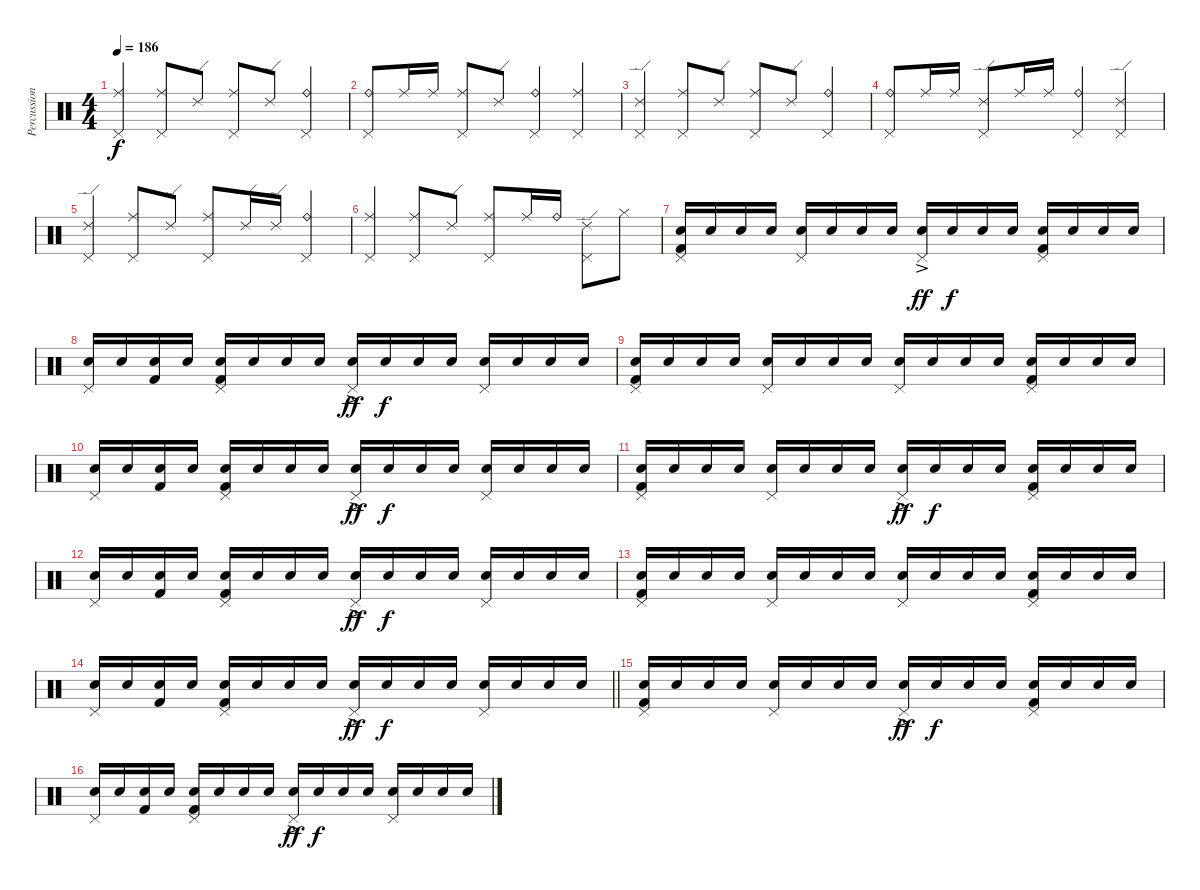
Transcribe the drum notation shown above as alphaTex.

\track ("Percussion" "Percussion") {instrument percussion}
\staff {score}
\articulation defaults
\ts (4 4)
\tempo 186
\clef neutral
\ks c
("Ride (middle)" "Pedal Hi-Hat (hit)").4{dy f} ("Ride (middle)" "Pedal Hi-Hat (hit)").8 "Ride (edge) 2".8 ("Ride (middle)" "Pedal Hi-Hat (hit)").8 "Ride (edge) 2".8 ("Ride (bell)" "Pedal Hi-Hat (hit)").4 |
("Ride (bell)" "Pedal Hi-Hat (hit)").8 "Ride (middle)".16 "Ride (middle)".16 ("Ride (middle)" "Pedal Hi-Hat (hit)").8 "Ride (edge) 2".8 ("Ride (bell)" "Pedal Hi-Hat (hit)").4 ("Ride (middle)" "Pedal Hi-Hat (hit)").4 |
("Ride (edge) 2" "Pedal Hi-Hat (hit)").4 ("Ride (middle)" "Pedal Hi-Hat (hit)").8 "Ride (edge) 2".8 ("Ride (middle)" "Pedal Hi-Hat (hit)").8 "Ride (edge) 2".8 ("Ride (bell)" "Pedal Hi-Hat (hit)").4 |
("Ride (bell)" "Pedal Hi-Hat (hit)").8 "Ride (middle)".16 "Ride (middle)".16 ("Ride (edge) 2" "Pedal Hi-Hat (hit)").8 "Ride (middle)".16 "Ride (middle)".16 ("Ride (bell)" "Pedal Hi-Hat (hit)").4 ("Ride (edge) 2" "Pedal Hi-Hat (hit)").4 |
("Ride (edge) 2" "Pedal Hi-Hat (hit)").4 ("Ride (middle)" "Pedal Hi-Hat (hit)").8 "Ride (edge) 2".8 ("Ride (middle)" "Pedal Hi-Hat (hit)").8 "Ride (edge) 2".16 "Ride (edge) 2".16 ("Ride (bell)" "Pedal Hi-Hat (hit)").4 |
("Ride (middle)" "Pedal Hi-Hat (hit)").4 ("Ride (middle)" "Pedal Hi-Hat (hit)").8 "Ride (edge) 2".8 ("Ride (middle)" "Pedal Hi-Hat (hit)").8 "Ride (middle)".16 "Ride (bell)".16 ("Ride (edge) 2" "Pedal Hi-Hat (hit)").8 "Hi-Hat (closed)".8 |
("Pedal Hi-Hat (hit)" "Electric Snare (hit)" "Kick (hit) 2").16{volume 10} "Electric Snare (hit)".16 "Electric Snare (hit)".16 "Electric Snare (hit)".16 ("Pedal Hi-Hat (hit)" "Electric Snare (hit)").16 "Electric Snare (hit)".16 "Electric Snare (hit)".16 "Electric Snare (hit)".16 ("Pedal Hi-Hat (hit)" "Electric Snare (hit)"{ac}).16{dy ff} "Electric Snare (hit)".16{dy f} "Electric Snare (hit)".16 "Electric Snare (hit)".16 ("Pedal Hi-Hat (hit)" "Electric Snare (hit)" "Kick (hit) 2").16 "Electric Snare (hit)".16 "Electric Snare (hit)".16 "Electric Snare (hit)".16 |
("Pedal Hi-Hat (hit)" "Electric Snare (hit)").16 "Electric Snare (hit)".16 ("Electric Snare (hit)" "Kick (hit) 2").16 "Electric Snare (hit)".16 ("Pedal Hi-Hat (hit)" "Electric Snare (hit)" "Kick (hit) 2").16 "Electric Snare (hit)".16 "Electric Snare (hit)".16 "Electric Snare (hit)".16 ("Pedal Hi-Hat (hit)" "Electric Snare (hit)"{ac}).16{dy ff} "Electric Snare (hit)".16{dy f} "Electric Snare (hit)".16 "Electric Snare (hit)".16 ("Pedal Hi-Hat (hit)" "Electric Snare (hit)").16 "Electric Snare (hit)".16 "Electric Snare (hit)".16 "Electric Snare (hit)".16 |
("Pedal Hi-Hat (hit)" "Electric Snare (hit)" "Kick (hit) 2").16 "Electric Snare (hit)".16 "Electric Snare (hit)".16 "Electric Snare (hit)".16 ("Pedal Hi-Hat (hit)" "Electric Snare (hit)").16 "Electric Snare (hit)".16 "Electric Snare (hit)".16 "Electric Snare (hit)".16 ("Pedal Hi-Hat (hit)" "Electric Snare (hit)").16 "Electric Snare (hit)".16 "Electric Snare (hit)".16 "Electric Snare (hit)".16 ("Pedal Hi-Hat (hit)" "Electric Snare (hit)" "Kick (hit) 2").16 "Electric Snare (hit)".16 "Electric Snare (hit)".16 "Electric Snare (hit)".16 |
("Pedal Hi-Hat (hit)" "Electric Snare (hit)").16 "Electric Snare (hit)".16 ("Electric Snare (hit)" "Kick (hit) 2").16 "Electric Snare (hit)".16 ("Pedal Hi-Hat (hit)" "Electric Snare (hit)" "Kick (hit) 2").16 "Electric Snare (hit)".16 "Electric Snare (hit)".16 "Electric Snare (hit)".16 ("Pedal Hi-Hat (hit)" "Electric Snare (hit)"{ac}).16{dy ff} "Electric Snare (hit)".16{dy f} "Electric Snare (hit)".16 "Electric Snare (hit)".16 ("Pedal Hi-Hat (hit)" "Electric Snare (hit)").16 "Electric Snare (hit)".16 "Electric Snare (hit)".16 "Electric Snare (hit)".16 |
("Pedal Hi-Hat (hit)" "Electric Snare (hit)" "Kick (hit) 2").16 "Electric Snare (hit)".16 "Electric Snare (hit)".16 "Electric Snare (hit)".16 ("Pedal Hi-Hat (hit)" "Electric Snare (hit)").16 "Electric Snare (hit)".16 "Electric Snare (hit)".16 "Electric Snare (hit)".16 ("Pedal Hi-Hat (hit)" "Electric Snare (hit)"{ac}).16{dy ff} "Electric Snare (hit)".16{dy f} "Electric Snare (hit)".16 "Electric Snare (hit)".16 ("Pedal Hi-Hat (hit)" "Electric Snare (hit)" "Kick (hit) 2").16 "Electric Snare (hit)".16 "Electric Snare (hit)".16 "Electric Snare (hit)".16 |
("Pedal Hi-Hat (hit)" "Electric Snare (hit)").16 "Electric Snare (hit)".16 ("Electric Snare (hit)" "Kick (hit) 2").16 "Electric Snare (hit)".16 ("Pedal Hi-Hat (hit)" "Electric Snare (hit)" "Kick (hit) 2").16 "Electric Snare (hit)".16 "Electric Snare (hit)".16 "Electric Snare (hit)".16 ("Pedal Hi-Hat (hit)" "Electric Snare (hit)"{ac}).16{dy ff} "Electric Snare (hit)".16{dy f} "Electric Snare (hit)".16 "Electric Snare (hit)".16 ("Pedal Hi-Hat (hit)" "Electric Snare (hit)").16 "Electric Snare (hit)".16 "Electric Snare (hit)".16 "Electric Snare (hit)".16 |
("Pedal Hi-Hat (hit)" "Electric Snare (hit)" "Kick (hit) 2").16 "Electric Snare (hit)".16 "Electric Snare (hit)".16 "Electric Snare (hit)".16 ("Pedal Hi-Hat (hit)" "Electric Snare (hit)").16 "Electric Snare (hit)".16 "Electric Snare (hit)".16 "Electric Snare (hit)".16 ("Pedal Hi-Hat (hit)" "Electric Snare (hit)").16 "Electric Snare (hit)".16 "Electric Snare (hit)".16 "Electric Snare (hit)".16 ("Pedal Hi-Hat (hit)" "Electric Snare (hit)" "Kick (hit) 2").16 "Electric Snare (hit)".16 "Electric Snare (hit)".16 "Electric Snare (hit)".16 |
\barLineRight lightlight
("Pedal Hi-Hat (hit)" "Electric Snare (hit)").16 "Electric Snare (hit)".16 ("Electric Snare (hit)" "Kick (hit) 2").16 "Electric Snare (hit)".16 ("Pedal Hi-Hat (hit)" "Electric Snare (hit)" "Kick (hit) 2").16 "Electric Snare (hit)".16 "Electric Snare (hit)".16 "Electric Snare (hit)".16 ("Pedal Hi-Hat (hit)" "Electric Snare (hit)"{ac}).16{dy ff} "Electric Snare (hit)".16{dy f} "Electric Snare (hit)".16 "Electric Snare (hit)".16 ("Pedal Hi-Hat (hit)" "Electric Snare (hit)").16 "Electric Snare (hit)".16 "Electric Snare (hit)".16 "Electric Snare (hit)".16 |
\section ("" "")
("Pedal Hi-Hat (hit)" "Electric Snare (hit)" "Kick (hit) 2").16 "Electric Snare (hit)".16 "Electric Snare (hit)".16 "Electric Snare (hit)".16 ("Pedal Hi-Hat (hit)" "Electric Snare (hit)").16 "Electric Snare (hit)".16 "Electric Snare (hit)".16 "Electric Snare (hit)".16 ("Pedal Hi-Hat (hit)" "Electric Snare (hit)"{ac}).16{dy ff} "Electric Snare (hit)".16{dy f} "Electric Snare (hit)".16 "Electric Snare (hit)".16 ("Pedal Hi-Hat (hit)" "Electric Snare (hit)" "Kick (hit) 2").16 "Electric Snare (hit)".16 "Electric Snare (hit)".16 "Electric Snare (hit)".16 |
("Pedal Hi-Hat (hit)" "Electric Snare (hit)").16 "Electric Snare (hit)".16 ("Electric Snare (hit)" "Kick (hit) 2").16 "Electric Snare (hit)".16 ("Pedal Hi-Hat (hit)" "Electric Snare (hit)" "Kick (hit) 2").16 "Electric Snare (hit)".16 "Electric Snare (hit)".16 "Electric Snare (hit)".16 ("Pedal Hi-Hat (hit)" "Electric Snare (hit)"{ac}).16{dy ff} "Electric Snare (hit)".16{dy f} "Electric Snare (hit)".16 "Electric Snare (hit)".16 ("Pedal Hi-Hat (hit)" "Electric Snare (hit)").16 "Electric Snare (hit)".16 "Electric Snare (hit)".16 "Electric Snare (hit)".16
